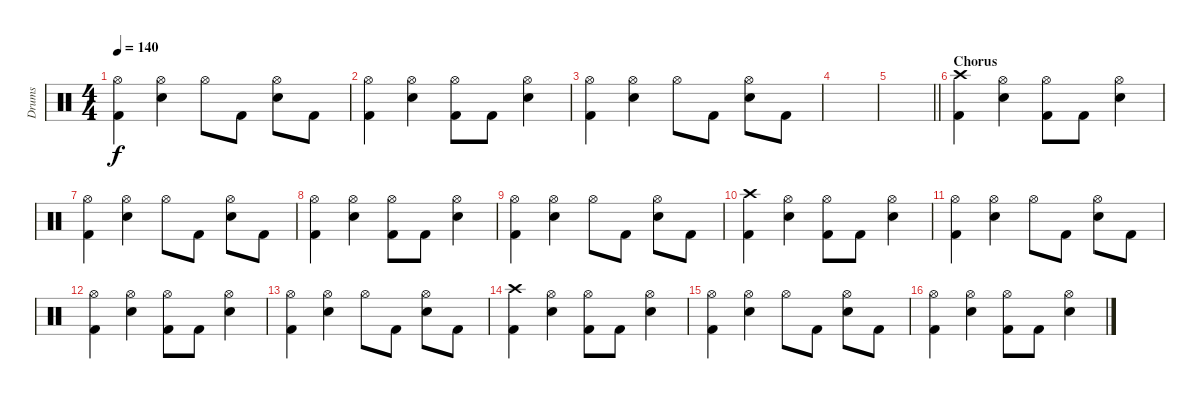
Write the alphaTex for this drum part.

\track ("Drums" "Drums") {instrument percussion}
\staff {score}
\articulation defaults
\ts (4 4)
\tempo 140
\clef neutral
\ks c
("Hi-Hat (open)" "Kick (hit) 2").4{dy f} ("Hi-Hat (open)" "Electric Snare (hit)").4 "Hi-Hat (open)".8 "Kick (hit) 2".8 ("Hi-Hat (open)" "Electric Snare (hit)").8 "Kick (hit) 2".8 |
("Hi-Hat (open)" "Kick (hit) 2").4 ("Hi-Hat (open)" "Electric Snare (hit)").4 ("Hi-Hat (open)" "Kick (hit) 2").8 "Kick (hit) 2".8 ("Hi-Hat (open)" "Electric Snare (hit)").4 |
("Hi-Hat (open)" "Kick (hit) 2").4 ("Hi-Hat (open)" "Electric Snare (hit)").4 "Hi-Hat (open)".8 "Kick (hit) 2".8 ("Hi-Hat (open)" "Electric Snare (hit)").8 "Kick (hit) 2".8 |
|
\barLineRight lightlight
|
\section ("" "Chorus")
("Crash high (hit)" "Kick (hit) 2").4 ("Hi-Hat (open)" "Electric Snare (hit)").4 ("Hi-Hat (open)" "Kick (hit) 2").8 "Kick (hit) 2".8 ("Hi-Hat (open)" "Electric Snare (hit)").4 |
("Hi-Hat (open)" "Kick (hit) 2").4 ("Hi-Hat (open)" "Electric Snare (hit)").4 "Hi-Hat (open)".8 "Kick (hit) 2".8 ("Hi-Hat (open)" "Electric Snare (hit)").8 "Kick (hit) 2".8 |
("Hi-Hat (open)" "Kick (hit) 2").4 ("Hi-Hat (open)" "Electric Snare (hit)").4 ("Hi-Hat (open)" "Kick (hit) 2").8 "Kick (hit) 2".8 ("Hi-Hat (open)" "Electric Snare (hit)").4 |
("Hi-Hat (open)" "Kick (hit) 2").4 ("Hi-Hat (open)" "Electric Snare (hit)").4 "Hi-Hat (open)".8 "Kick (hit) 2".8 ("Hi-Hat (open)" "Electric Snare (hit)").8 "Kick (hit) 2".8 |
("Crash high (hit)" "Kick (hit) 2").4 ("Hi-Hat (open)" "Electric Snare (hit)").4 ("Hi-Hat (open)" "Kick (hit) 2").8 "Kick (hit) 2".8 ("Hi-Hat (open)" "Electric Snare (hit)").4 |
("Hi-Hat (open)" "Kick (hit) 2").4 ("Hi-Hat (open)" "Electric Snare (hit)").4 "Hi-Hat (open)".8 "Kick (hit) 2".8 ("Hi-Hat (open)" "Electric Snare (hit)").8 "Kick (hit) 2".8 |
("Hi-Hat (open)" "Kick (hit) 2").4 ("Hi-Hat (open)" "Electric Snare (hit)").4 ("Hi-Hat (open)" "Kick (hit) 2").8 "Kick (hit) 2".8 ("Hi-Hat (open)" "Electric Snare (hit)").4 |
("Hi-Hat (open)" "Kick (hit) 2").4 ("Hi-Hat (open)" "Electric Snare (hit)").4 "Hi-Hat (open)".8 "Kick (hit) 2".8 ("Hi-Hat (open)" "Electric Snare (hit)").8 "Kick (hit) 2".8 |
("Crash high (hit)" "Kick (hit) 2").4 ("Hi-Hat (open)" "Electric Snare (hit)").4 ("Hi-Hat (open)" "Kick (hit) 2").8 "Kick (hit) 2".8 ("Hi-Hat (open)" "Electric Snare (hit)").4 |
("Hi-Hat (open)" "Kick (hit) 2").4 ("Hi-Hat (open)" "Electric Snare (hit)").4 "Hi-Hat (open)".8 "Kick (hit) 2".8 ("Hi-Hat (open)" "Electric Snare (hit)").8 "Kick (hit) 2".8 |
("Hi-Hat (open)" "Kick (hit) 2").4 ("Hi-Hat (open)" "Electric Snare (hit)").4 ("Hi-Hat (open)" "Kick (hit) 2").8 "Kick (hit) 2".8 ("Hi-Hat (open)" "Electric Snare (hit)").4
